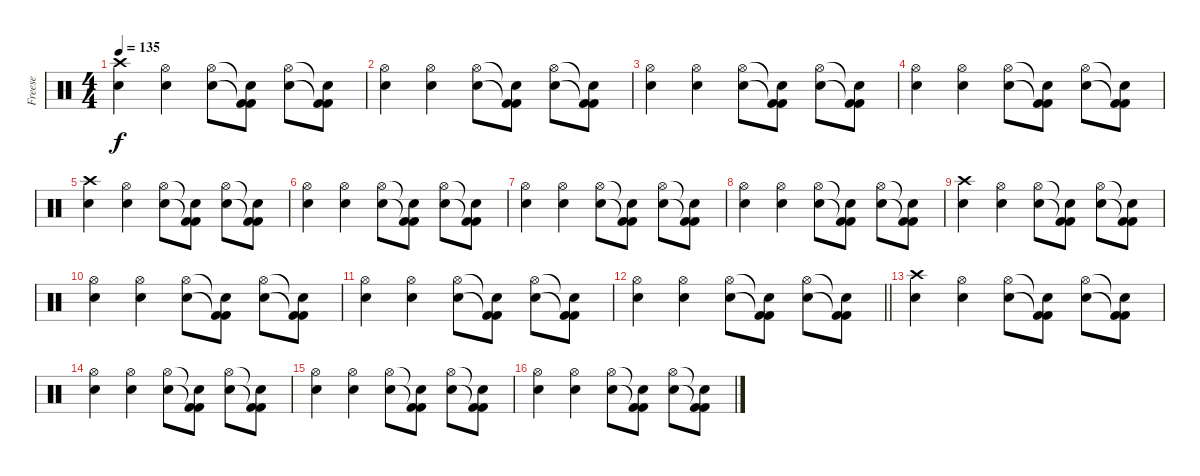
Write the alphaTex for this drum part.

\track ("Freese" "Freese") {instrument percussion}
\staff {score}
\articulation defaults
\ts (4 4)
\tempo 135
\clef neutral
\ks c
("Crash high (hit)" "Electric Snare (hit)").4{dy f} ("Hi-Hat (open)" "Electric Snare (hit)").4 ("Hi-Hat (open)" "Electric Snare (hit)").8 ("Snare (hit)"{t} "Kick (hit) 2"{t} "Kick (hit) 2").8 ("Hi-Hat (open)" "Electric Snare (hit)").8 ("Snare (hit)"{t} "Kick (hit) 2"{t} "Kick (hit) 2").8 |
("Hi-Hat (open)" "Electric Snare (hit)").4 ("Hi-Hat (open)" "Electric Snare (hit)").4 ("Hi-Hat (open)" "Electric Snare (hit)").8 ("Snare (hit)"{t} "Kick (hit) 2"{t} "Kick (hit) 2").8 ("Hi-Hat (open)" "Electric Snare (hit)").8 ("Snare (hit)"{t} "Kick (hit) 2"{t} "Kick (hit) 2").8 |
("Hi-Hat (open)" "Electric Snare (hit)").4 ("Hi-Hat (open)" "Electric Snare (hit)").4 ("Hi-Hat (open)" "Electric Snare (hit)").8 ("Snare (hit)"{t} "Kick (hit) 2"{t} "Kick (hit) 2").8 ("Hi-Hat (open)" "Electric Snare (hit)").8 ("Snare (hit)"{t} "Kick (hit) 2"{t} "Kick (hit) 2").8 |
("Hi-Hat (open)" "Electric Snare (hit)").4 ("Hi-Hat (open)" "Electric Snare (hit)").4 ("Hi-Hat (open)" "Electric Snare (hit)").8 ("Snare (hit)"{t} "Kick (hit) 2"{t} "Kick (hit) 2").8 ("Hi-Hat (open)" "Electric Snare (hit)").8 ("Snare (hit)"{t} "Kick (hit) 2"{t} "Kick (hit) 2").8 |
("Crash high (hit)" "Electric Snare (hit)").4 ("Hi-Hat (open)" "Electric Snare (hit)").4 ("Hi-Hat (open)" "Electric Snare (hit)").8 ("Snare (hit)"{t} "Kick (hit) 2"{t} "Kick (hit) 2").8 ("Hi-Hat (open)" "Electric Snare (hit)").8 ("Snare (hit)"{t} "Kick (hit) 2"{t} "Kick (hit) 2").8 |
("Hi-Hat (open)" "Electric Snare (hit)").4 ("Hi-Hat (open)" "Electric Snare (hit)").4 ("Hi-Hat (open)" "Electric Snare (hit)").8 ("Snare (hit)"{t} "Kick (hit) 2"{t} "Kick (hit) 2").8 ("Hi-Hat (open)" "Electric Snare (hit)").8 ("Snare (hit)"{t} "Kick (hit) 2"{t} "Kick (hit) 2").8 |
("Hi-Hat (open)" "Electric Snare (hit)").4 ("Hi-Hat (open)" "Electric Snare (hit)").4 ("Hi-Hat (open)" "Electric Snare (hit)").8 ("Snare (hit)"{t} "Kick (hit) 2"{t} "Kick (hit) 2").8 ("Hi-Hat (open)" "Electric Snare (hit)").8 ("Snare (hit)"{t} "Kick (hit) 2"{t} "Kick (hit) 2").8 |
("Hi-Hat (open)" "Electric Snare (hit)").4 ("Hi-Hat (open)" "Electric Snare (hit)").4 ("Hi-Hat (open)" "Electric Snare (hit)").8 ("Snare (hit)"{t} "Kick (hit) 2"{t} "Kick (hit) 2").8 ("Hi-Hat (open)" "Electric Snare (hit)").8 ("Snare (hit)"{t} "Kick (hit) 2"{t} "Kick (hit) 2").8 |
("Crash high (hit)" "Electric Snare (hit)").4 ("Hi-Hat (open)" "Electric Snare (hit)").4 ("Hi-Hat (open)" "Electric Snare (hit)").8 ("Snare (hit)"{t} "Kick (hit) 2"{t} "Kick (hit) 2").8 ("Hi-Hat (open)" "Electric Snare (hit)").8 ("Snare (hit)"{t} "Kick (hit) 2"{t} "Kick (hit) 2").8 |
("Hi-Hat (open)" "Electric Snare (hit)").4 ("Hi-Hat (open)" "Electric Snare (hit)").4 ("Hi-Hat (open)" "Electric Snare (hit)").8 ("Snare (hit)"{t} "Kick (hit) 2"{t} "Kick (hit) 2").8 ("Hi-Hat (open)" "Electric Snare (hit)").8 ("Snare (hit)"{t} "Kick (hit) 2"{t} "Kick (hit) 2").8 |
("Hi-Hat (open)" "Electric Snare (hit)").4 ("Hi-Hat (open)" "Electric Snare (hit)").4 ("Hi-Hat (open)" "Electric Snare (hit)").8 ("Snare (hit)"{t} "Kick (hit) 2"{t} "Kick (hit) 2").8 ("Hi-Hat (open)" "Electric Snare (hit)").8 ("Snare (hit)"{t} "Kick (hit) 2"{t} "Kick (hit) 2").8 |
\barLineRight lightlight
("Hi-Hat (open)" "Electric Snare (hit)").4 ("Hi-Hat (open)" "Electric Snare (hit)").4 ("Hi-Hat (open)" "Electric Snare (hit)").8 ("Snare (hit)"{t} "Kick (hit) 2"{t} "Kick (hit) 2").8 ("Hi-Hat (open)" "Electric Snare (hit)").8 ("Snare (hit)"{t} "Kick (hit) 2"{t} "Kick (hit) 2").8 |
("Crash high (hit)" "Electric Snare (hit)").4 ("Hi-Hat (open)" "Electric Snare (hit)").4 ("Hi-Hat (open)" "Electric Snare (hit)").8 ("Snare (hit)"{t} "Kick (hit) 2"{t} "Kick (hit) 2").8 ("Hi-Hat (open)" "Electric Snare (hit)").8 ("Snare (hit)"{t} "Kick (hit) 2"{t} "Kick (hit) 2").8 |
("Hi-Hat (open)" "Electric Snare (hit)").4 ("Hi-Hat (open)" "Electric Snare (hit)").4 ("Hi-Hat (open)" "Electric Snare (hit)").8 ("Snare (hit)"{t} "Kick (hit) 2"{t} "Kick (hit) 2").8 ("Hi-Hat (open)" "Electric Snare (hit)").8 ("Snare (hit)"{t} "Kick (hit) 2"{t} "Kick (hit) 2").8 |
("Hi-Hat (open)" "Electric Snare (hit)").4 ("Hi-Hat (open)" "Electric Snare (hit)").4 ("Hi-Hat (open)" "Electric Snare (hit)").8 ("Snare (hit)"{t} "Kick (hit) 2"{t} "Kick (hit) 2").8 ("Hi-Hat (open)" "Electric Snare (hit)").8 ("Snare (hit)"{t} "Kick (hit) 2"{t} "Kick (hit) 2").8 |
("Hi-Hat (open)" "Electric Snare (hit)").4 ("Hi-Hat (open)" "Electric Snare (hit)").4 ("Hi-Hat (open)" "Electric Snare (hit)").8 ("Snare (hit)"{t} "Kick (hit) 2"{t} "Kick (hit) 2").8 ("Hi-Hat (open)" "Electric Snare (hit)").8 ("Snare (hit)"{t} "Kick (hit) 2"{t} "Kick (hit) 2").8
